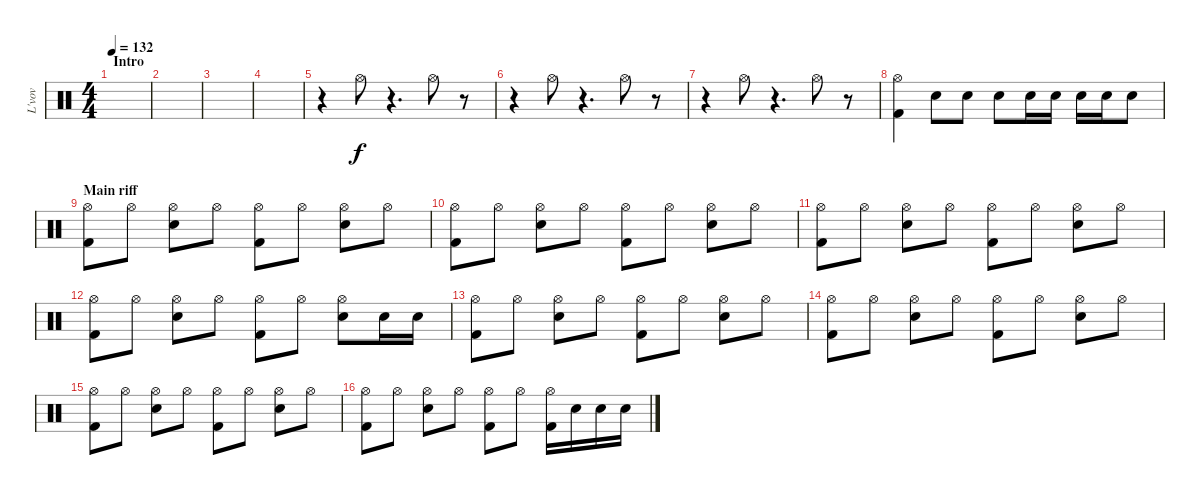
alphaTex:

\track ("L'vov" "L'vov") {instrument percussion}
\staff {score}
\articulation defaults
\ts (4 4)
\section ("" "Intro")
\tempo 132
\clef neutral
\ks c
|
|
|
|
r.4 "Hi-Hat (open)".8 r.4{d} "Hi-Hat (open)".8 r.8 |
r.4 "Hi-Hat (open)".8 r.4{d} "Hi-Hat (open)".8 r.8 |
r.4 "Hi-Hat (open)".8 r.4{d} "Hi-Hat (open)".8 r.8 |
("Hi-Hat (open)" "Kick (hit) 2").4 "Electric Snare (hit)".8 "Snare (hit) 2".8 "Snare (hit) 2".8 "Snare (hit) 2".16 "Snare (hit) 2".16 "Snare (hit) 2".16 "Snare (hit) 2".16 "Snare (hit) 2".8 |
\section ("" "Main riff")
("Hi-Hat (open)" "Kick (hit) 2").8 "Hi-Hat (open)".8 ("Hi-Hat (open)" "Snare (hit) 2").8 "Hi-Hat (open)".8 ("Hi-Hat (open)" "Kick (hit) 2").8 "Hi-Hat (open)".8 ("Hi-Hat (open)" "Snare (hit) 2").8 "Hi-Hat (open)".8 |
("Hi-Hat (open)" "Kick (hit) 2").8 "Hi-Hat (open)".8 ("Hi-Hat (open)" "Snare (hit) 2").8 "Hi-Hat (open)".8 ("Hi-Hat (open)" "Kick (hit) 2").8 "Hi-Hat (open)".8 ("Hi-Hat (open)" "Snare (hit) 2").8 "Hi-Hat (open)".8 |
("Hi-Hat (open)" "Kick (hit) 2").8 "Hi-Hat (open)".8 ("Hi-Hat (open)" "Snare (hit) 2").8 "Hi-Hat (open)".8 ("Hi-Hat (open)" "Kick (hit) 2").8 "Hi-Hat (open)".8 ("Hi-Hat (open)" "Snare (hit) 2").8 "Hi-Hat (open)".8 |
("Hi-Hat (open)" "Kick (hit) 2").8 "Hi-Hat (open)".8 ("Hi-Hat (open)" "Snare (hit) 2").8 "Hi-Hat (open)".8 ("Hi-Hat (open)" "Kick (hit) 2").8 "Hi-Hat (open)".8 ("Hi-Hat (open)" "Snare (hit) 2").8 "Snare (hit) 2".16 "Snare (hit) 2".16 |
("Hi-Hat (open)" "Kick (hit) 2").8 "Hi-Hat (open)".8 ("Hi-Hat (open)" "Snare (hit) 2").8 "Hi-Hat (open)".8 ("Hi-Hat (open)" "Kick (hit) 2").8 "Hi-Hat (open)".8 ("Hi-Hat (open)" "Snare (hit) 2").8 "Hi-Hat (open)".8 |
("Hi-Hat (open)" "Kick (hit) 2").8 "Hi-Hat (open)".8 ("Hi-Hat (open)" "Snare (hit) 2").8 "Hi-Hat (open)".8 ("Hi-Hat (open)" "Kick (hit) 2").8 "Hi-Hat (open)".8 ("Hi-Hat (open)" "Snare (hit) 2").8 "Hi-Hat (open)".8 |
("Hi-Hat (open)" "Kick (hit) 2").8 "Hi-Hat (open)".8 ("Hi-Hat (open)" "Snare (hit) 2").8 "Hi-Hat (open)".8 ("Hi-Hat (open)" "Kick (hit) 2").8 "Hi-Hat (open)".8 ("Hi-Hat (open)" "Snare (hit) 2").8 "Hi-Hat (open)".8 |
("Hi-Hat (open)" "Kick (hit) 2").8 "Hi-Hat (open)".8 ("Hi-Hat (open)" "Snare (hit) 2").8 "Hi-Hat (open)".8 ("Hi-Hat (open)" "Kick (hit) 2").8 "Hi-Hat (open)".8 ("Hi-Hat (open)" "Kick (hit) 2").16 "Snare (hit) 2".16 "Snare (hit) 2".16 "Snare (hit) 2".16
